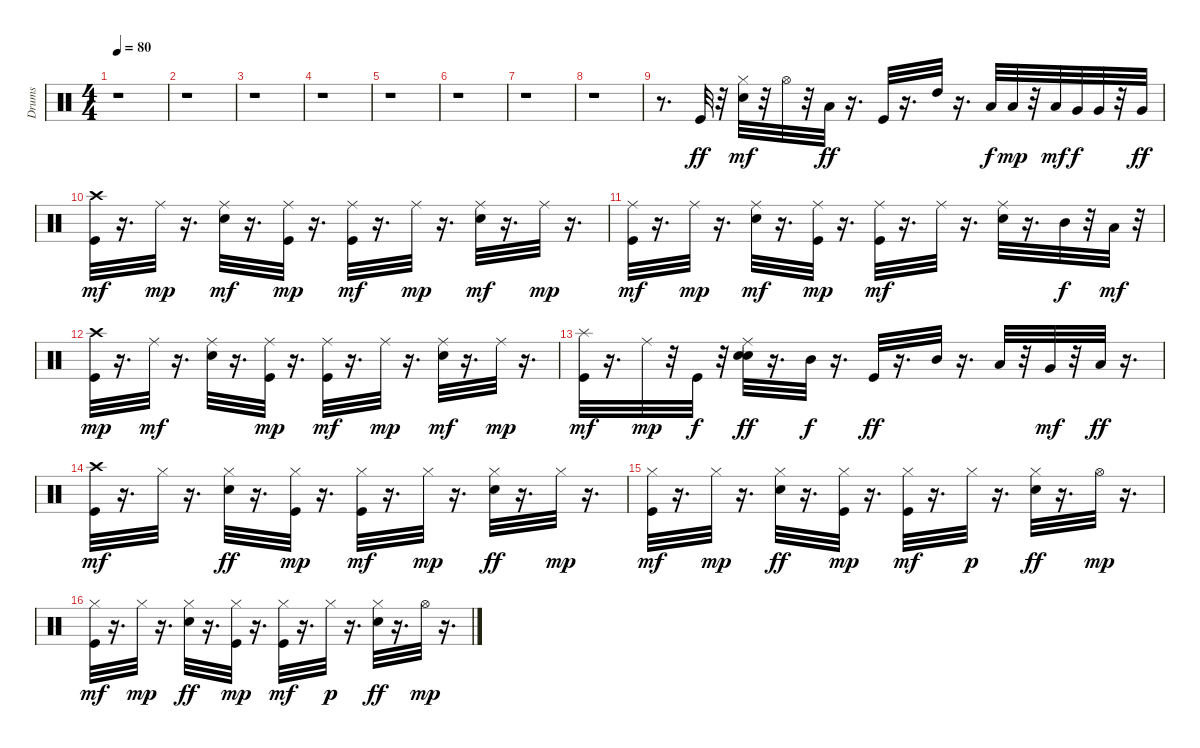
\track ("Drums" "Drums") {instrument percussion}
\staff {score}
\articulation defaults
\ts (4 4)
\tempo 80
\clef neutral
\ks c
r.1{dy ff} |
r.1 |
r.1 |
r.1 |
r.1 |
r.1 |
r.1 |
r.1 |
r.8{d} "Kick (hit)".32 r.32 ("Electric Snare (hit)" "Hi-Hat (closed)").32{dy mf} r.32 "Hi-Hat (open)".32 r.32 "Low Tom (hit)".32{dy ff} r.16{d} "Kick (hit)".32 r.16{d} "High Tom (hit)".32 r.16{d} "Low Tom (hit)".32{dy f} "Low Tom (hit)".32{dy mp} r.32 "Low Tom (hit)".32{dy mf} "Very Low Tom (hit)".32{dy f} "Very Low Tom (hit)".32 r.32 "Very Low Tom (hit)".32{dy ff} |
("Kick (hit)" "Crash high (hit)").32{dy mf} r.16{d} "Ride (middle)".32{dy mp} r.16{d} ("Electric Snare (hit)" "Ride (middle)").32{dy mf} r.16{d} ("Kick (hit)" "Ride (middle)").32{dy mp} r.16{d} ("Kick (hit)" "Ride (middle)").32{dy mf} r.16{d} "Ride (middle)".32{dy mp} r.16{d} ("Electric Snare (hit)" "Ride (middle)").32{dy mf} r.16{d} "Ride (middle)".32{dy mp} r.16{d} |
("Kick (hit)" "Ride (middle)").32{dy mf} r.16{d} "Ride (middle)".32{dy mp} r.16{d} ("Electric Snare (hit)" "Ride (middle)").32{dy mf} r.16{d} ("Kick (hit)" "Ride (middle)").32{dy mp} r.16{d} ("Kick (hit)" "Ride (middle)").32{dy mf} r.16{d} "Ride (middle)".32 r.16{d} ("Electric Snare (hit)" "Ride (middle)").32 r.16{d} "Mid Tom (hit)".32{dy f} r.32 "Low Tom (hit)".32{dy mf} r.32 |
("Kick (hit)" "Crash high (hit)").32{dy mp} r.16{d} "Ride (middle)".32{dy mf} r.16{d} ("Electric Snare (hit)" "Ride (middle)").32 r.16{d} ("Kick (hit)" "Ride (middle)").32{dy mp} r.16{d} ("Kick (hit)" "Ride (middle)").32{dy mf} r.16{d} "Ride (middle)".32{dy mp} r.16{d} ("Electric Snare (hit)" "Ride (middle)").32{dy mf} r.16{d} "Ride (middle)".32{dy mp} r.16{d} |
("Kick (hit)" "Splash (hit)").32{dy mf} r.16{d} "Ride (middle)".32{dy mp} r.32 "Kick (hit)".32{dy f} r.32 ("Snare (hit) 2" "Ride (middle)" "Electric Snare (hit)").32{dy ff} r.16{d} "Mid Tom (hit)".32{dy f} r.16{d} "Kick (hit)".32{dy ff} r.16{d} "Mid Tom (hit)".32 r.16{d} "Low Tom (hit)".32 r.32 "Very Low Tom (hit)".32{dy mf} r.32 "Low Floor Tom (hit)".32{dy ff} r.16{d} |
("Kick (hit)" "Crash high (hit)").32{dy mf} r.16{d} "Hi-Hat (closed)".32 r.16{d} ("Electric Snare (hit)" "Hi-Hat (closed)").32{dy ff} r.16{d} ("Kick (hit)" "Hi-Hat (closed)").32{dy mp} r.16{d} ("Kick (hit)" "Hi-Hat (closed)").32{dy mf} r.16{d} "Hi-Hat (closed)".32{dy mp} r.16{d} ("Electric Snare (hit)" "Hi-Hat (closed)").32{dy ff} r.16{d} "Hi-Hat (closed)".32{dy mp} r.16{d} |
("Kick (hit)" "Hi-Hat (closed)").32{dy mf} r.16{d} "Hi-Hat (closed)".32{dy mp} r.16{d} ("Electric Snare (hit)" "Hi-Hat (closed)").32{dy ff} r.16{d} ("Kick (hit)" "Hi-Hat (closed)").32{dy mp} r.16{d} ("Kick (hit)" "Hi-Hat (closed)").32{dy mf} r.16{d} "Hi-Hat (closed)".32{dy p} r.16{d} ("Electric Snare (hit)" "Hi-Hat (closed)").32{dy ff} r.16{d} "Hi-Hat (open)".32{dy mp} r.16{d} |
("Kick (hit)" "Hi-Hat (closed)").32{dy mf} r.16{d} "Hi-Hat (closed)".32{dy mp} r.16{d} ("Electric Snare (hit)" "Hi-Hat (closed)").32{dy ff} r.16{d} ("Kick (hit)" "Hi-Hat (closed)").32{dy mp} r.16{d} ("Kick (hit)" "Hi-Hat (closed)").32{dy mf} r.16{d} "Hi-Hat (closed)".32{dy p} r.16{d} ("Electric Snare (hit)" "Hi-Hat (closed)").32{dy ff} r.16{d} "Hi-Hat (open)".32{dy mp} r.16{d}
